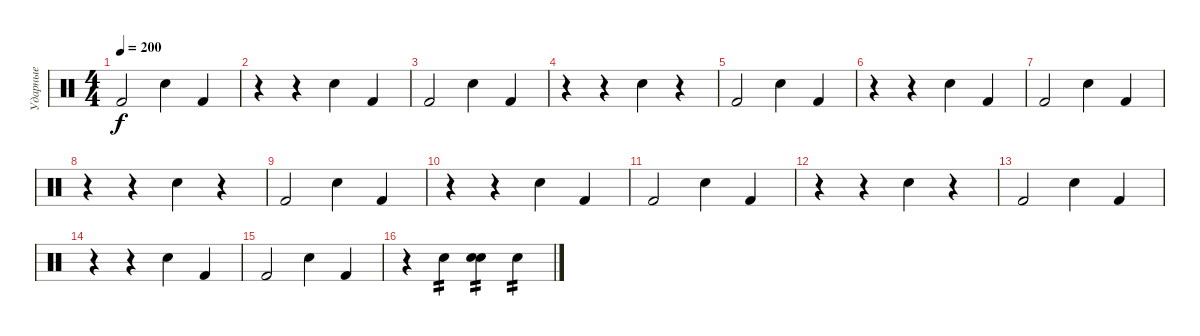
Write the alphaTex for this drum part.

\track ("Ударные" "Ударные") {instrument percussion}
\staff {score}
\articulation defaults
\ts (4 4)
\tempo 200
\clef neutral
\ks c "Kick (hit) 2".2{dy f} "Snare (hit) 2".4 "Kick (hit) 2".4
|
r.4 r.4 "Snare (hit) 2".4 "Kick (hit) 2".4 |
"Kick (hit) 2".2 "Snare (hit) 2".4 "Kick (hit) 2".4 |
r.4 r.4 "Snare (hit) 2".4 r.4 |
"Kick (hit) 2".2 "Snare (hit) 2".4 "Kick (hit) 2".4 |
r.4 r.4 "Snare (hit) 2".4 "Kick (hit) 2".4 |
"Kick (hit) 2".2 "Snare (hit) 2".4 "Kick (hit) 2".4 |
r.4 r.4 "Snare (hit) 2".4 r.4 |
"Kick (hit) 2".2 "Snare (hit) 2".4 "Kick (hit) 2".4 |
r.4 r.4 "Snare (hit) 2".4 "Kick (hit) 2".4 |
"Kick (hit) 2".2 "Snare (hit) 2".4 "Kick (hit) 2".4 |
r.4 r.4 "Snare (hit) 2".4 r.4 |
"Kick (hit) 2".2 "Snare (hit) 2".4 "Kick (hit) 2".4 |
r.4 r.4 "Snare (hit) 2".4 "Kick (hit) 2".4 |
"Kick (hit) 2".2 "Snare (hit) 2".4 "Kick (hit) 2".4 |
r.4 "Snare (hit) 2".4{tp 2} ("Snare (hit) 2" "Snare (hit) 2").4{tp 2} "Snare (hit) 2".4{tp 2}
